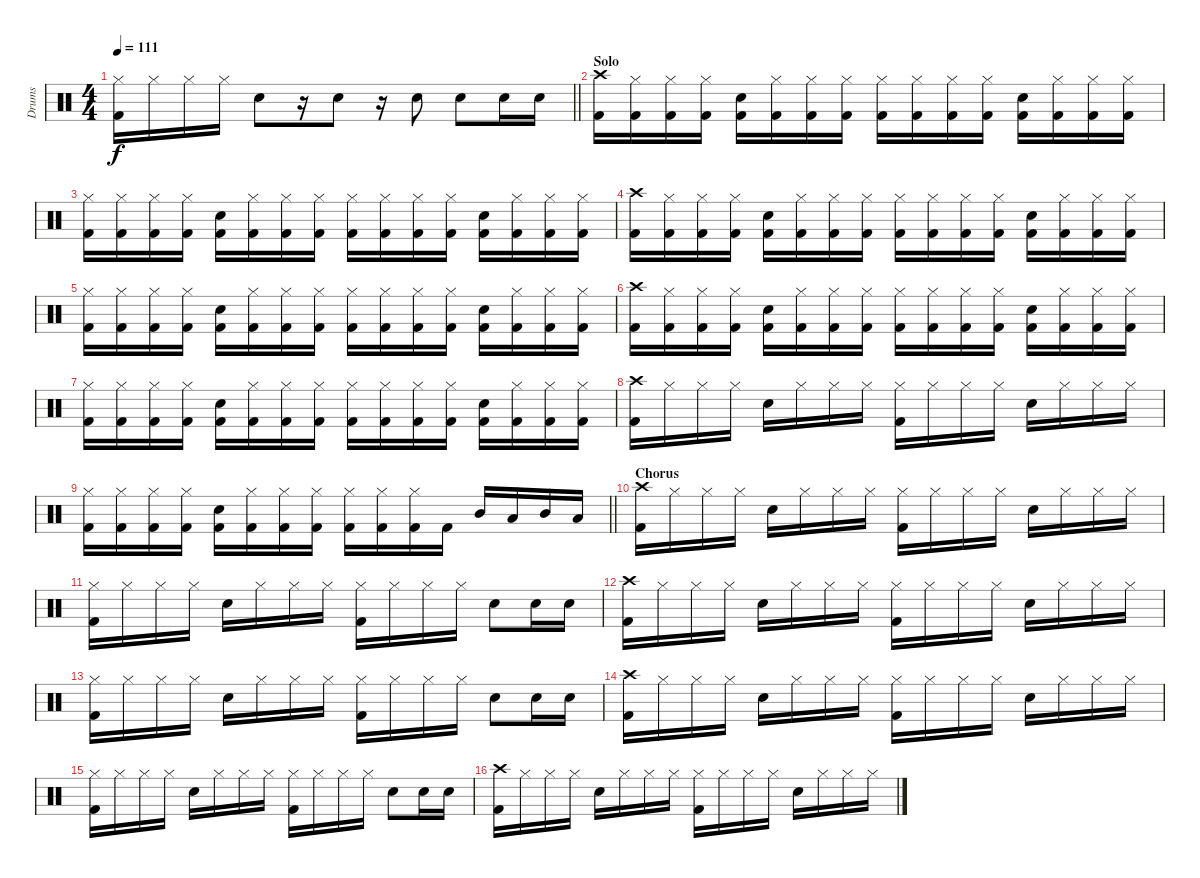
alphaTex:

\track ("Drums" "Drums") {instrument percussion}
\staff {score}
\articulation defaults
\ts (4 4)
\tempo 111
\clef neutral
\barLineRight lightlight
\ks c
("Hi-Hat (closed)" "Kick (hit) 2").16{dy f} "Hi-Hat (closed)".16 "Hi-Hat (closed)".16 "Hi-Hat (closed)".16 "Snare (hit) 2".8 r.16 "Snare (hit) 2".8 r.16 "Snare (hit) 2".8 "Snare (hit) 2".8 "Snare (hit) 2".16 "Snare (hit) 2".16 |
\section ("" "Solo")
("Crash high (hit)" "Kick (hit) 2").16 ("Hi-Hat (closed)" "Kick (hit) 2").16 ("Hi-Hat (closed)" "Kick (hit) 2").16 ("Hi-Hat (closed)" "Kick (hit) 2").16 ("Snare (hit) 2" "Kick (hit) 2").16 ("Hi-Hat (closed)" "Kick (hit) 2").16 ("Hi-Hat (closed)" "Kick (hit) 2").16 ("Hi-Hat (closed)" "Kick (hit) 2").16 ("Hi-Hat (closed)" "Kick (hit) 2").16 ("Hi-Hat (closed)" "Kick (hit) 2").16 ("Hi-Hat (closed)" "Kick (hit) 2").16 ("Hi-Hat (closed)" "Kick (hit) 2").16 ("Snare (hit) 2" "Kick (hit) 2").16 ("Hi-Hat (closed)" "Kick (hit) 2").16 ("Hi-Hat (closed)" "Kick (hit) 2").16 ("Hi-Hat (closed)" "Kick (hit) 2").16 |
("Hi-Hat (closed)" "Kick (hit) 2").16 ("Hi-Hat (closed)" "Kick (hit) 2").16 ("Hi-Hat (closed)" "Kick (hit) 2").16 ("Hi-Hat (closed)" "Kick (hit) 2").16 ("Snare (hit) 2" "Kick (hit) 2").16 ("Hi-Hat (closed)" "Kick (hit) 2").16 ("Hi-Hat (closed)" "Kick (hit) 2").16 ("Hi-Hat (closed)" "Kick (hit) 2").16 ("Hi-Hat (closed)" "Kick (hit) 2").16 ("Hi-Hat (closed)" "Kick (hit) 2").16 ("Hi-Hat (closed)" "Kick (hit) 2").16 ("Hi-Hat (closed)" "Kick (hit) 2").16 ("Snare (hit) 2" "Kick (hit) 2").16 ("Hi-Hat (closed)" "Kick (hit) 2").16 ("Hi-Hat (closed)" "Kick (hit) 2").16 ("Hi-Hat (closed)" "Kick (hit) 2").16 |
("Crash high (hit)" "Kick (hit) 2").16 ("Hi-Hat (closed)" "Kick (hit) 2").16 ("Hi-Hat (closed)" "Kick (hit) 2").16 ("Hi-Hat (closed)" "Kick (hit) 2").16 ("Snare (hit) 2" "Kick (hit) 2").16 ("Hi-Hat (closed)" "Kick (hit) 2").16 ("Hi-Hat (closed)" "Kick (hit) 2").16 ("Hi-Hat (closed)" "Kick (hit) 2").16 ("Hi-Hat (closed)" "Kick (hit) 2").16 ("Hi-Hat (closed)" "Kick (hit) 2").16 ("Hi-Hat (closed)" "Kick (hit) 2").16 ("Hi-Hat (closed)" "Kick (hit) 2").16 ("Snare (hit) 2" "Kick (hit) 2").16 ("Hi-Hat (closed)" "Kick (hit) 2").16 ("Hi-Hat (closed)" "Kick (hit) 2").16 ("Hi-Hat (closed)" "Kick (hit) 2").16 |
("Hi-Hat (closed)" "Kick (hit) 2").16 ("Hi-Hat (closed)" "Kick (hit) 2").16 ("Hi-Hat (closed)" "Kick (hit) 2").16 ("Hi-Hat (closed)" "Kick (hit) 2").16 ("Snare (hit) 2" "Kick (hit) 2").16 ("Hi-Hat (closed)" "Kick (hit) 2").16 ("Hi-Hat (closed)" "Kick (hit) 2").16 ("Hi-Hat (closed)" "Kick (hit) 2").16 ("Hi-Hat (closed)" "Kick (hit) 2").16 ("Hi-Hat (closed)" "Kick (hit) 2").16 ("Hi-Hat (closed)" "Kick (hit) 2").16 ("Hi-Hat (closed)" "Kick (hit) 2").16 ("Snare (hit) 2" "Kick (hit) 2").16 ("Hi-Hat (closed)" "Kick (hit) 2").16 ("Hi-Hat (closed)" "Kick (hit) 2").16 ("Hi-Hat (closed)" "Kick (hit) 2").16 |
("Crash high (hit)" "Kick (hit) 2").16 ("Hi-Hat (closed)" "Kick (hit) 2").16 ("Hi-Hat (closed)" "Kick (hit) 2").16 ("Hi-Hat (closed)" "Kick (hit) 2").16 ("Snare (hit) 2" "Kick (hit) 2").16 ("Hi-Hat (closed)" "Kick (hit) 2").16 ("Hi-Hat (closed)" "Kick (hit) 2").16 ("Hi-Hat (closed)" "Kick (hit) 2").16 ("Hi-Hat (closed)" "Kick (hit) 2").16 ("Hi-Hat (closed)" "Kick (hit) 2").16 ("Hi-Hat (closed)" "Kick (hit) 2").16 ("Hi-Hat (closed)" "Kick (hit) 2").16 ("Snare (hit) 2" "Kick (hit) 2").16 ("Hi-Hat (closed)" "Kick (hit) 2").16 ("Hi-Hat (closed)" "Kick (hit) 2").16 ("Hi-Hat (closed)" "Kick (hit) 2").16 |
("Hi-Hat (closed)" "Kick (hit) 2").16 ("Hi-Hat (closed)" "Kick (hit) 2").16 ("Hi-Hat (closed)" "Kick (hit) 2").16 ("Hi-Hat (closed)" "Kick (hit) 2").16 ("Snare (hit) 2" "Kick (hit) 2").16 ("Hi-Hat (closed)" "Kick (hit) 2").16 ("Hi-Hat (closed)" "Kick (hit) 2").16 ("Hi-Hat (closed)" "Kick (hit) 2").16 ("Hi-Hat (closed)" "Kick (hit) 2").16 ("Hi-Hat (closed)" "Kick (hit) 2").16 ("Hi-Hat (closed)" "Kick (hit) 2").16 ("Hi-Hat (closed)" "Kick (hit) 2").16 ("Snare (hit) 2" "Kick (hit) 2").16 ("Hi-Hat (closed)" "Kick (hit) 2").16 ("Hi-Hat (closed)" "Kick (hit) 2").16 ("Hi-Hat (closed)" "Kick (hit) 2").16 |
("Crash high (hit)" "Kick (hit) 2").16 "Hi-Hat (closed)".16 "Hi-Hat (closed)".16 "Hi-Hat (closed)".16 "Snare (hit) 2".16 "Hi-Hat (closed)".16 "Hi-Hat (closed)".16 "Hi-Hat (closed)".16 ("Hi-Hat (closed)" "Kick (hit) 2").16 "Hi-Hat (closed)".16 "Hi-Hat (closed)".16 "Hi-Hat (closed)".16 "Snare (hit) 2".16 "Hi-Hat (closed)".16 "Hi-Hat (closed)".16 "Hi-Hat (closed)".16 |
\barLineRight lightlight
("Hi-Hat (closed)" "Kick (hit) 2").16 ("Hi-Hat (closed)" "Kick (hit) 2").16 ("Hi-Hat (closed)" "Kick (hit) 2").16 ("Hi-Hat (closed)" "Kick (hit) 2").16 ("Snare (hit) 2" "Kick (hit) 2").16 ("Hi-Hat (closed)" "Kick (hit) 2").16 ("Hi-Hat (closed)" "Kick (hit) 2").16 ("Hi-Hat (closed)" "Kick (hit) 2").16 ("Hi-Hat (closed)" "Kick (hit) 2").16 ("Hi-Hat (closed)" "Kick (hit) 2").16 ("Hi-Hat (closed)" "Kick (hit) 2").16 "Kick (hit) 2".16 "Mid Tom (hit)".16 "Low Tom (hit)".16 "Mid Tom (hit)".16 "Low Tom (hit)".16 |
\section ("" "Chorus")
("Crash high (hit)" "Kick (hit) 2").16 "Hi-Hat (closed)".16 "Hi-Hat (closed)".16 "Hi-Hat (closed)".16 "Snare (hit) 2".16 "Hi-Hat (closed)".16 "Hi-Hat (closed)".16 "Hi-Hat (closed)".16 ("Hi-Hat (closed)" "Kick (hit) 2").16 "Hi-Hat (closed)".16 "Hi-Hat (closed)".16 "Hi-Hat (closed)".16 "Snare (hit) 2".16 "Hi-Hat (closed)".16 "Hi-Hat (closed)".16 "Hi-Hat (closed)".16 |
("Hi-Hat (closed)" "Kick (hit) 2").16 "Hi-Hat (closed)".16 "Hi-Hat (closed)".16 "Hi-Hat (closed)".16 "Snare (hit) 2".16 "Hi-Hat (closed)".16 "Hi-Hat (closed)".16 "Hi-Hat (closed)".16 ("Hi-Hat (closed)" "Kick (hit) 2").16 "Hi-Hat (closed)".16 "Hi-Hat (closed)".16 "Hi-Hat (closed)".16 "Snare (hit) 2".8 "Snare (hit) 2".16 "Snare (hit) 2".16 |
("Crash high (hit)" "Kick (hit) 2").16 "Hi-Hat (closed)".16 "Hi-Hat (closed)".16 "Hi-Hat (closed)".16 "Snare (hit) 2".16 "Hi-Hat (closed)".16 "Hi-Hat (closed)".16 "Hi-Hat (closed)".16 ("Hi-Hat (closed)" "Kick (hit) 2").16 "Hi-Hat (closed)".16 "Hi-Hat (closed)".16 "Hi-Hat (closed)".16 "Snare (hit) 2".16 "Hi-Hat (closed)".16 "Hi-Hat (closed)".16 "Hi-Hat (closed)".16 |
("Hi-Hat (closed)" "Kick (hit) 2").16 "Hi-Hat (closed)".16 "Hi-Hat (closed)".16 "Hi-Hat (closed)".16 "Snare (hit) 2".16 "Hi-Hat (closed)".16 "Hi-Hat (closed)".16 "Hi-Hat (closed)".16 ("Hi-Hat (closed)" "Kick (hit) 2").16 "Hi-Hat (closed)".16 "Hi-Hat (closed)".16 "Hi-Hat (closed)".16 "Snare (hit) 2".8 "Snare (hit) 2".16 "Snare (hit) 2".16 |
("Crash high (hit)" "Kick (hit) 2").16 "Hi-Hat (closed)".16 "Hi-Hat (closed)".16 "Hi-Hat (closed)".16 "Snare (hit) 2".16 "Hi-Hat (closed)".16 "Hi-Hat (closed)".16 "Hi-Hat (closed)".16 ("Hi-Hat (closed)" "Kick (hit) 2").16 "Hi-Hat (closed)".16 "Hi-Hat (closed)".16 "Hi-Hat (closed)".16 "Snare (hit) 2".16 "Hi-Hat (closed)".16 "Hi-Hat (closed)".16 "Hi-Hat (closed)".16 |
("Hi-Hat (closed)" "Kick (hit) 2").16 "Hi-Hat (closed)".16 "Hi-Hat (closed)".16 "Hi-Hat (closed)".16 "Snare (hit) 2".16 "Hi-Hat (closed)".16 "Hi-Hat (closed)".16 "Hi-Hat (closed)".16 ("Hi-Hat (closed)" "Kick (hit) 2").16 "Hi-Hat (closed)".16 "Hi-Hat (closed)".16 "Hi-Hat (closed)".16 "Snare (hit) 2".8 "Snare (hit) 2".16 "Snare (hit) 2".16 |
("Crash high (hit)" "Kick (hit) 2").16 "Hi-Hat (closed)".16 "Hi-Hat (closed)".16 "Hi-Hat (closed)".16 "Snare (hit) 2".16 "Hi-Hat (closed)".16 "Hi-Hat (closed)".16 "Hi-Hat (closed)".16 ("Hi-Hat (closed)" "Kick (hit) 2").16 "Hi-Hat (closed)".16 "Hi-Hat (closed)".16 "Hi-Hat (closed)".16 "Snare (hit) 2".16 "Hi-Hat (closed)".16 "Hi-Hat (closed)".16 "Hi-Hat (closed)".16
